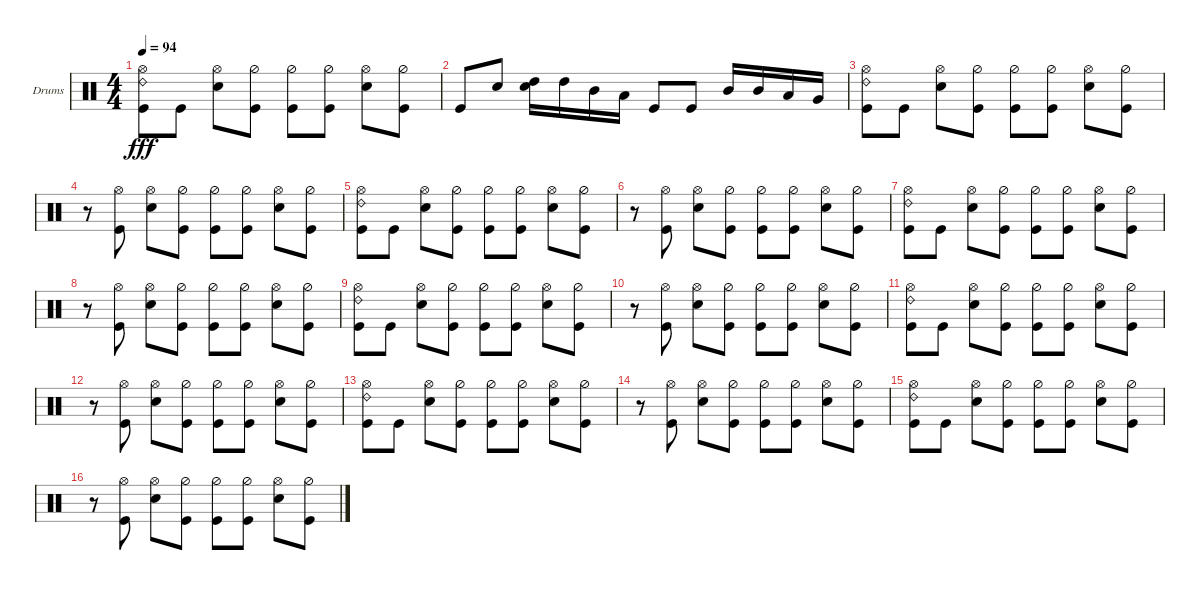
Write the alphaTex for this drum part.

\defaultSystemsLayout 4
\bracketExtendMode groupsimilarinstruments
\firstSystemTrackNameOrientation horizontal
\otherSystemsTrackNameOrientation horizontal
\track ("Drumkit" "Drums") {instrument percussion}
\staff {score}
\articulation defaults
\ts (4 4)
\tempo 94
\clef neutral
\ks c
("Hi-Hat (open)" "Ride (bell) 2" "Kick (hit)").8{dy fff} "Kick (hit)".8 ("Hi-Hat (open)" "Snare (hit) 2").8 ("Hi-Hat (half)" "Kick (hit)").8 ("Hi-Hat (half)" "Kick (hit)").8 ("Hi-Hat (half)" "Kick (hit)").8 ("Hi-Hat (open)" "Snare (hit) 2").8 ("Hi-Hat (half)" "Kick (hit)").8 |
"Kick (hit)".8 "Snare (hit) 2".8 ("Snare (hit) 2" "High Tom (hit)").16 "High Tom (hit)".16 "Mid Tom (hit)".16 "Low Tom (hit)".16 "Kick (hit)".8 "Kick (hit)".8 "Mid Tom (hit)".16 "Mid Tom (hit)".16 "Low Tom (hit)".16 "Very Low Tom (hit)".16 |
("Hi-Hat (open)" "Ride (bell) 2" "Kick (hit)").8 "Kick (hit)".8 ("Hi-Hat (open)" "Snare (hit) 2").8 ("Hi-Hat (half)" "Kick (hit)").8 ("Hi-Hat (half)" "Kick (hit)").8 ("Hi-Hat (half)" "Kick (hit)").8 ("Hi-Hat (open)" "Snare (hit) 2").8 ("Hi-Hat (half)" "Kick (hit)").8 |
r.8 ("Kick (hit)" "Hi-Hat (open)").8 ("Hi-Hat (open)" "Snare (hit) 2").8 ("Hi-Hat (half)" "Kick (hit)").8 ("Hi-Hat (half)" "Kick (hit)").8 ("Hi-Hat (half)" "Kick (hit)").8 ("Hi-Hat (open)" "Snare (hit) 2").8 ("Hi-Hat (half)" "Kick (hit)").8 |
("Hi-Hat (open)" "Ride (bell) 2" "Kick (hit)").8 "Kick (hit)".8 ("Hi-Hat (open)" "Snare (hit) 2").8 ("Hi-Hat (half)" "Kick (hit)").8 ("Hi-Hat (half)" "Kick (hit)").8 ("Hi-Hat (half)" "Kick (hit)").8 ("Hi-Hat (open)" "Snare (hit) 2").8 ("Hi-Hat (half)" "Kick (hit)").8 |
r.8 ("Kick (hit)" "Hi-Hat (open)").8 ("Hi-Hat (open)" "Snare (hit) 2").8 ("Hi-Hat (half)" "Kick (hit)").8 ("Hi-Hat (half)" "Kick (hit)").8 ("Hi-Hat (half)" "Kick (hit)").8 ("Hi-Hat (open)" "Snare (hit) 2").8 ("Hi-Hat (half)" "Kick (hit)").8 |
("Hi-Hat (open)" "Ride (bell) 2" "Kick (hit)").8 "Kick (hit)".8 ("Hi-Hat (open)" "Snare (hit) 2").8 ("Hi-Hat (half)" "Kick (hit)").8 ("Hi-Hat (half)" "Kick (hit)").8 ("Hi-Hat (half)" "Kick (hit)").8 ("Hi-Hat (open)" "Snare (hit) 2").8 ("Hi-Hat (half)" "Kick (hit)").8 |
r.8 ("Kick (hit)" "Hi-Hat (open)").8 ("Hi-Hat (open)" "Snare (hit) 2").8 ("Hi-Hat (half)" "Kick (hit)").8 ("Hi-Hat (half)" "Kick (hit)").8 ("Hi-Hat (half)" "Kick (hit)").8 ("Hi-Hat (open)" "Snare (hit) 2").8 ("Hi-Hat (half)" "Kick (hit)").8 |
("Hi-Hat (open)" "Ride (bell) 2" "Kick (hit)").8 "Kick (hit)".8 ("Hi-Hat (open)" "Snare (hit) 2").8 ("Hi-Hat (half)" "Kick (hit)").8 ("Hi-Hat (half)" "Kick (hit)").8 ("Hi-Hat (half)" "Kick (hit)").8 ("Hi-Hat (open)" "Snare (hit) 2").8 ("Hi-Hat (half)" "Kick (hit)").8 |
r.8 ("Kick (hit)" "Hi-Hat (open)").8 ("Hi-Hat (open)" "Snare (hit) 2").8 ("Hi-Hat (half)" "Kick (hit)").8 ("Hi-Hat (half)" "Kick (hit)").8 ("Hi-Hat (half)" "Kick (hit)").8 ("Hi-Hat (open)" "Snare (hit) 2").8 ("Hi-Hat (half)" "Kick (hit)").8 |
("Hi-Hat (open)" "Ride (bell) 2" "Kick (hit)").8 "Kick (hit)".8 ("Hi-Hat (open)" "Snare (hit) 2").8 ("Hi-Hat (half)" "Kick (hit)").8 ("Hi-Hat (half)" "Kick (hit)").8 ("Hi-Hat (half)" "Kick (hit)").8 ("Hi-Hat (open)" "Snare (hit) 2").8 ("Hi-Hat (half)" "Kick (hit)").8 |
r.8 ("Kick (hit)" "Hi-Hat (open)").8 ("Hi-Hat (open)" "Snare (hit) 2").8 ("Hi-Hat (half)" "Kick (hit)").8 ("Hi-Hat (half)" "Kick (hit)").8 ("Hi-Hat (half)" "Kick (hit)").8 ("Hi-Hat (open)" "Snare (hit) 2").8 ("Hi-Hat (half)" "Kick (hit)").8 |
("Hi-Hat (open)" "Ride (bell) 2" "Kick (hit)").8 "Kick (hit)".8 ("Hi-Hat (open)" "Snare (hit) 2").8 ("Hi-Hat (half)" "Kick (hit)").8 ("Hi-Hat (half)" "Kick (hit)").8 ("Hi-Hat (half)" "Kick (hit)").8 ("Hi-Hat (open)" "Snare (hit) 2").8 ("Hi-Hat (half)" "Kick (hit)").8 |
r.8 ("Kick (hit)" "Hi-Hat (open)").8 ("Hi-Hat (open)" "Snare (hit) 2").8 ("Hi-Hat (half)" "Kick (hit)").8 ("Hi-Hat (half)" "Kick (hit)").8 ("Hi-Hat (half)" "Kick (hit)").8 ("Hi-Hat (open)" "Snare (hit) 2").8 ("Hi-Hat (half)" "Kick (hit)").8 |
("Hi-Hat (open)" "Ride (bell) 2" "Kick (hit)").8 "Kick (hit)".8 ("Hi-Hat (open)" "Snare (hit) 2").8 ("Hi-Hat (half)" "Kick (hit)").8 ("Hi-Hat (half)" "Kick (hit)").8 ("Hi-Hat (half)" "Kick (hit)").8 ("Hi-Hat (open)" "Snare (hit) 2").8 ("Hi-Hat (half)" "Kick (hit)").8 |
r.8 ("Kick (hit)" "Hi-Hat (open)").8 ("Hi-Hat (open)" "Snare (hit) 2").8 ("Hi-Hat (half)" "Kick (hit)").8 ("Hi-Hat (half)" "Kick (hit)").8 ("Hi-Hat (half)" "Kick (hit)").8 ("Hi-Hat (open)" "Snare (hit) 2").8 ("Hi-Hat (half)" "Kick (hit)").8
